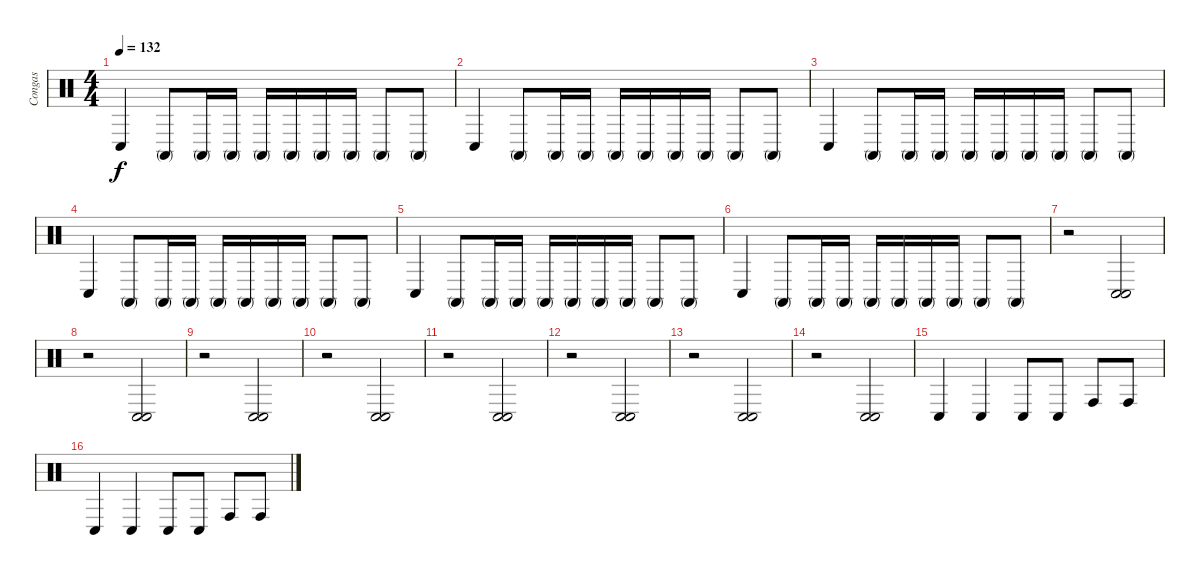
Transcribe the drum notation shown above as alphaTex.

\track ("Congas" "Congas") {instrument percussion}
\staff {score}
\articulation defaults
\ts (4 4)
\tempo 132
\clef neutral
\ks c "Conga low (hit)".4{dy f} "Conga high (mute)".8 "Conga high (mute)".16 "Conga high (mute)".16 "Conga high (mute)".16 "Conga high (mute)".16 "Conga high (mute)".16 "Conga high (mute)".16 "Conga high (mute)".8 "Conga high (mute)".8
|
"Conga low (hit)".4 "Conga high (mute)".8 "Conga high (mute)".16 "Conga high (mute)".16 "Conga high (mute)".16 "Conga high (mute)".16 "Conga high (mute)".16 "Conga high (mute)".16 "Conga high (mute)".8 "Conga high (mute)".8 |
"Conga low (hit)".4 "Conga high (mute)".8 "Conga high (mute)".16 "Conga high (mute)".16 "Conga high (mute)".16 "Conga high (mute)".16 "Conga high (mute)".16 "Conga high (mute)".16 "Conga high (mute)".8 "Conga high (mute)".8 |
"Conga low (hit)".4 "Conga high (mute)".8 "Conga high (mute)".16 "Conga high (mute)".16 "Conga high (mute)".16 "Conga high (mute)".16 "Conga high (mute)".16 "Conga high (mute)".16 "Conga high (mute)".8 "Conga high (mute)".8 |
"Conga low (hit)".4 "Conga high (mute)".8 "Conga high (mute)".16 "Conga high (mute)".16 "Conga high (mute)".16 "Conga high (mute)".16 "Conga high (mute)".16 "Conga high (mute)".16 "Conga high (mute)".8 "Conga high (mute)".8 |
"Conga low (hit)".4 "Conga high (mute)".8 "Conga high (mute)".16 "Conga high (mute)".16 "Conga high (mute)".16 "Conga high (mute)".16 "Conga high (mute)".16 "Conga high (mute)".16 "Conga high (mute)".8 "Conga high (mute)".8 |
r.2 ("Conga low (hit)" "Conga low (hit)").2 |
r.2 ("Conga low (hit)" "Conga low (hit)").2 |
r.2 ("Conga low (hit)" "Conga low (hit)").2 |
r.2 ("Conga low (hit)" "Conga low (hit)").2 |
r.2 ("Conga low (hit)" "Conga low (hit)").2 |
r.2 ("Conga low (hit)" "Conga low (hit)").2 |
r.2 ("Conga low (hit)" "Conga low (hit)").2 |
r.2 ("Conga low (hit)" "Conga low (hit)").2 |
"Conga low (hit)".4 "Conga low (hit)".4 "Conga low (hit)".8 "Conga low (hit)".8 "Conga high (hit)".8 "Conga high (hit)".8 |
"Conga low (hit)".4 "Conga low (hit)".4 "Conga low (hit)".8 "Conga low (hit)".8 "Conga high (hit)".8 "Conga high (hit)".8
